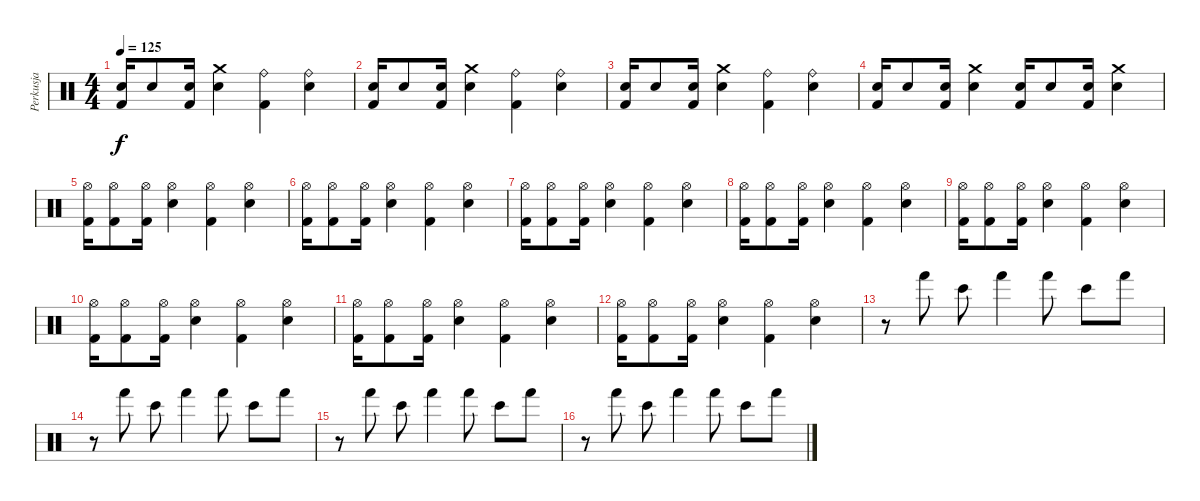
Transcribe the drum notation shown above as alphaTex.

\track ("Perkusja" "Perkusja") {instrument percussion}
\staff {score}
\articulation defaults
\ts (4 4)
\tempo 125
\clef neutral
\ks c
("Electric Snare (hit)" "Kick (hit) 2").16{dy f} "Electric Snare (hit)".8 ("Electric Snare (hit)" "Kick (hit) 2").16 ("Crash medium (hit)" "Electric Snare (hit)").4 ("Ride (bell)" "Kick (hit) 2").4 ("Ride (bell)" "Electric Snare (hit)").4 |
("Electric Snare (hit)" "Kick (hit) 2").16 "Electric Snare (hit)".8 ("Electric Snare (hit)" "Kick (hit) 2").16 ("Crash medium (hit)" "Electric Snare (hit)").4 ("Ride (bell)" "Kick (hit) 2").4 ("Ride (bell)" "Electric Snare (hit)").4 |
("Electric Snare (hit)" "Kick (hit) 2").16 "Electric Snare (hit)".8 ("Electric Snare (hit)" "Kick (hit) 2").16 ("Crash medium (hit)" "Electric Snare (hit)").4 ("Ride (bell)" "Kick (hit) 2").4 ("Ride (bell)" "Electric Snare (hit)").4 |
("Electric Snare (hit)" "Kick (hit) 2").16 "Electric Snare (hit)".8 ("Electric Snare (hit)" "Kick (hit) 2").16 ("Crash medium (hit)" "Electric Snare (hit)").4 ("Electric Snare (hit)" "Kick (hit) 2").16 "Electric Snare (hit)".8 ("Electric Snare (hit)" "Kick (hit) 2").16 ("Crash medium (hit)" "Electric Snare (hit)").4 |
("Hi-Hat (open)" "Kick (hit) 2").16 ("Hi-Hat (open)" "Kick (hit) 2").8 ("Hi-Hat (open)" "Kick (hit) 2").16 ("Hi-Hat (open)" "Electric Snare (hit)").4 ("Hi-Hat (open)" "Kick (hit) 2").4 ("Hi-Hat (open)" "Electric Snare (hit)").4 |
("Hi-Hat (open)" "Kick (hit) 2").16 ("Hi-Hat (open)" "Kick (hit) 2").8 ("Hi-Hat (open)" "Kick (hit) 2").16 ("Hi-Hat (open)" "Electric Snare (hit)").4 ("Hi-Hat (open)" "Kick (hit) 2").4 ("Hi-Hat (open)" "Electric Snare (hit)").4 |
("Hi-Hat (open)" "Kick (hit) 2").16 ("Hi-Hat (open)" "Kick (hit) 2").8 ("Hi-Hat (open)" "Kick (hit) 2").16 ("Hi-Hat (open)" "Electric Snare (hit)").4 ("Hi-Hat (open)" "Kick (hit) 2").4 ("Hi-Hat (open)" "Electric Snare (hit)").4 |
("Hi-Hat (open)" "Kick (hit) 2").16 ("Hi-Hat (open)" "Kick (hit) 2").8 ("Hi-Hat (open)" "Kick (hit) 2").16 ("Hi-Hat (open)" "Electric Snare (hit)").4 ("Hi-Hat (open)" "Kick (hit) 2").4 ("Hi-Hat (open)" "Electric Snare (hit)").4 |
("Hi-Hat (open)" "Kick (hit) 2").16 ("Hi-Hat (open)" "Kick (hit) 2").8 ("Hi-Hat (open)" "Kick (hit) 2").16 ("Hi-Hat (open)" "Electric Snare (hit)").4 ("Hi-Hat (open)" "Kick (hit) 2").4 ("Hi-Hat (open)" "Electric Snare (hit)").4 |
("Hi-Hat (open)" "Kick (hit) 2").16 ("Hi-Hat (open)" "Kick (hit) 2").8 ("Hi-Hat (open)" "Kick (hit) 2").16 ("Hi-Hat (open)" "Electric Snare (hit)").4 ("Hi-Hat (open)" "Kick (hit) 2").4 ("Hi-Hat (open)" "Electric Snare (hit)").4 |
("Hi-Hat (open)" "Kick (hit) 2").16 ("Hi-Hat (open)" "Kick (hit) 2").8 ("Hi-Hat (open)" "Kick (hit) 2").16 ("Hi-Hat (open)" "Electric Snare (hit)").4 ("Hi-Hat (open)" "Kick (hit) 2").4 ("Hi-Hat (open)" "Electric Snare (hit)").4 |
("Hi-Hat (open)" "Kick (hit) 2").16 ("Hi-Hat (open)" "Kick (hit) 2").8 ("Hi-Hat (open)" "Kick (hit) 2").16 ("Hi-Hat (open)" "Electric Snare (hit)").4 ("Hi-Hat (open)" "Kick (hit) 2").4 ("Hi-Hat (open)" "Electric Snare (hit)").4 |
r.8 "Hand (hit)".8 "Bongo High (hit)".8 "Hand (hit)".4 "Hand (hit)".8 "Bongo High (hit)".8 "Hand (hit)".8 |
r.8 "Hand (hit)".8 "Bongo High (hit)".8 "Hand (hit)".4 "Hand (hit)".8 "Bongo High (hit)".8 "Hand (hit)".8 |
r.8 "Hand (hit)".8 "Bongo High (hit)".8 "Hand (hit)".4 "Hand (hit)".8 "Bongo High (hit)".8 "Hand (hit)".8 |
r.8 "Hand (hit)".8 "Bongo High (hit)".8 "Hand (hit)".4 "Hand (hit)".8 "Bongo High (hit)".8 "Hand (hit)".8
